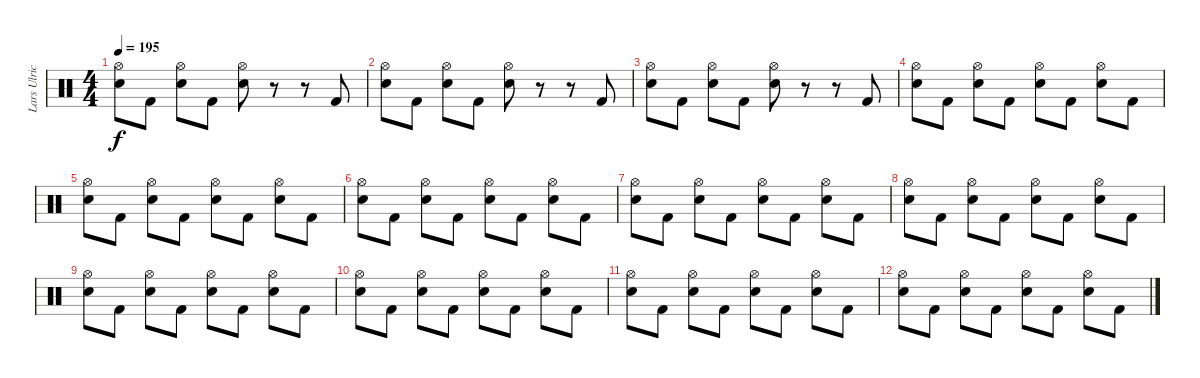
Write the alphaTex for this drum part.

\track ("Lars Ulrich" "Lars Ulric") {instrument percussion}
\staff {score}
\articulation defaults
\ts (4 4)
\tempo 195
\clef neutral
\ks c
("Hi-Hat (open)" "Electric Snare (hit)").8{dy f} "Kick (hit) 2".8 ("Hi-Hat (open)" "Electric Snare (hit)").8 "Kick (hit) 2".8 ("Hi-Hat (open)" "Electric Snare (hit)").8 r.8 r.8 "Kick (hit) 2".8 |
("Hi-Hat (open)" "Electric Snare (hit)").8 "Kick (hit) 2".8 ("Hi-Hat (open)" "Electric Snare (hit)").8 "Kick (hit) 2".8 ("Hi-Hat (open)" "Electric Snare (hit)").8 r.8 r.8 "Kick (hit) 2".8 |
("Hi-Hat (open)" "Electric Snare (hit)").8 "Kick (hit) 2".8 ("Hi-Hat (open)" "Electric Snare (hit)").8 "Kick (hit) 2".8 ("Hi-Hat (open)" "Electric Snare (hit)").8 r.8 r.8 "Kick (hit) 2".8 |
("Hi-Hat (open)" "Electric Snare (hit)").8 "Kick (hit) 2".8 ("Hi-Hat (open)" "Electric Snare (hit)").8 "Kick (hit) 2".8 ("Hi-Hat (open)" "Electric Snare (hit)").8 "Kick (hit) 2".8 ("Hi-Hat (open)" "Electric Snare (hit)").8 "Kick (hit) 2".8 |
("Hi-Hat (open)" "Electric Snare (hit)").8 "Kick (hit) 2".8 ("Hi-Hat (open)" "Electric Snare (hit)").8 "Kick (hit) 2".8 ("Hi-Hat (open)" "Electric Snare (hit)").8 "Kick (hit) 2".8 ("Hi-Hat (open)" "Electric Snare (hit)").8 "Kick (hit) 2".8 |
("Hi-Hat (open)" "Electric Snare (hit)").8 "Kick (hit) 2".8 ("Hi-Hat (open)" "Electric Snare (hit)").8 "Kick (hit) 2".8 ("Hi-Hat (open)" "Electric Snare (hit)").8 "Kick (hit) 2".8 ("Hi-Hat (open)" "Electric Snare (hit)").8 "Kick (hit) 2".8 |
("Hi-Hat (open)" "Electric Snare (hit)").8 "Kick (hit) 2".8 ("Hi-Hat (open)" "Electric Snare (hit)").8 "Kick (hit) 2".8 ("Hi-Hat (open)" "Electric Snare (hit)").8 "Kick (hit) 2".8 ("Hi-Hat (open)" "Electric Snare (hit)").8 "Kick (hit) 2".8 |
("Hi-Hat (open)" "Electric Snare (hit)").8 "Kick (hit) 2".8 ("Hi-Hat (open)" "Electric Snare (hit)").8 "Kick (hit) 2".8 ("Hi-Hat (open)" "Electric Snare (hit)").8 "Kick (hit) 2".8 ("Hi-Hat (open)" "Electric Snare (hit)").8 "Kick (hit) 2".8 |
("Hi-Hat (open)" "Electric Snare (hit)").8 "Kick (hit) 2".8 ("Hi-Hat (open)" "Electric Snare (hit)").8 "Kick (hit) 2".8 ("Hi-Hat (open)" "Electric Snare (hit)").8 "Kick (hit) 2".8 ("Hi-Hat (open)" "Electric Snare (hit)").8 "Kick (hit) 2".8 |
("Hi-Hat (open)" "Electric Snare (hit)").8 "Kick (hit) 2".8 ("Hi-Hat (open)" "Electric Snare (hit)").8 "Kick (hit) 2".8 ("Hi-Hat (open)" "Electric Snare (hit)").8 "Kick (hit) 2".8 ("Hi-Hat (open)" "Electric Snare (hit)").8 "Kick (hit) 2".8 |
("Hi-Hat (open)" "Electric Snare (hit)").8 "Kick (hit) 2".8 ("Hi-Hat (open)" "Electric Snare (hit)").8 "Kick (hit) 2".8 ("Hi-Hat (open)" "Electric Snare (hit)").8 "Kick (hit) 2".8 ("Hi-Hat (open)" "Electric Snare (hit)").8 "Kick (hit) 2".8 |
("Hi-Hat (open)" "Electric Snare (hit)").8 "Kick (hit) 2".8 ("Hi-Hat (open)" "Electric Snare (hit)").8 "Kick (hit) 2".8 ("Hi-Hat (open)" "Electric Snare (hit)").8 "Kick (hit) 2".8 ("Hi-Hat (open)" "Electric Snare (hit)").8 "Kick (hit) 2".8
